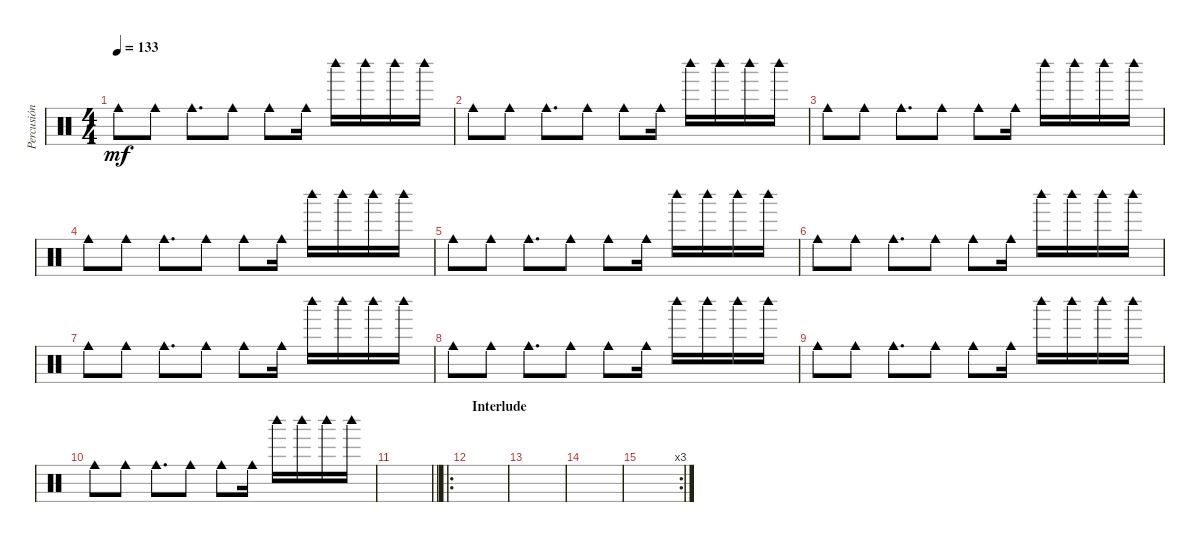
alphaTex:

\track ("Percusión Menor" "Percusión ") {instrument percussion}
\staff {score}
\articulation defaults
\ts (4 4)
\tempo 133
\clef neutral
\ks c "Cowbell medium (hit)".8{dy mf} "Cowbell medium (hit)".8 "Cowbell medium (hit)".8{d} "Cowbell medium (hit)".8 "Cowbell medium (hit)".8 "Cowbell medium (hit)".16 "Woodblock high (hit)".16 "Woodblock high (hit)".16 "Woodblock high (hit)".16 "Woodblock high (hit)".16
|
"Cowbell medium (hit)".8 "Cowbell medium (hit)".8 "Cowbell medium (hit)".8{d} "Cowbell medium (hit)".8 "Cowbell medium (hit)".8 "Cowbell medium (hit)".16 "Woodblock high (hit)".16 "Woodblock high (hit)".16 "Woodblock high (hit)".16 "Woodblock high (hit)".16 |
"Cowbell medium (hit)".8 "Cowbell medium (hit)".8 "Cowbell medium (hit)".8{d} "Cowbell medium (hit)".8 "Cowbell medium (hit)".8 "Cowbell medium (hit)".16 "Woodblock high (hit)".16 "Woodblock high (hit)".16 "Woodblock high (hit)".16 "Woodblock high (hit)".16 |
"Cowbell medium (hit)".8 "Cowbell medium (hit)".8 "Cowbell medium (hit)".8{d} "Cowbell medium (hit)".8 "Cowbell medium (hit)".8 "Cowbell medium (hit)".16 "Woodblock high (hit)".16 "Woodblock high (hit)".16 "Woodblock high (hit)".16 "Woodblock high (hit)".16 |
"Cowbell medium (hit)".8 "Cowbell medium (hit)".8 "Cowbell medium (hit)".8{d} "Cowbell medium (hit)".8 "Cowbell medium (hit)".8 "Cowbell medium (hit)".16 "Woodblock high (hit)".16 "Woodblock high (hit)".16 "Woodblock high (hit)".16 "Woodblock high (hit)".16 |
"Cowbell medium (hit)".8 "Cowbell medium (hit)".8 "Cowbell medium (hit)".8{d} "Cowbell medium (hit)".8 "Cowbell medium (hit)".8 "Cowbell medium (hit)".16 "Woodblock high (hit)".16 "Woodblock high (hit)".16 "Woodblock high (hit)".16 "Woodblock high (hit)".16 |
"Cowbell medium (hit)".8 "Cowbell medium (hit)".8 "Cowbell medium (hit)".8{d} "Cowbell medium (hit)".8 "Cowbell medium (hit)".8 "Cowbell medium (hit)".16 "Woodblock high (hit)".16 "Woodblock high (hit)".16 "Woodblock high (hit)".16 "Woodblock high (hit)".16 |
"Cowbell medium (hit)".8 "Cowbell medium (hit)".8 "Cowbell medium (hit)".8{d} "Cowbell medium (hit)".8 "Cowbell medium (hit)".8 "Cowbell medium (hit)".16 "Woodblock high (hit)".16 "Woodblock high (hit)".16 "Woodblock high (hit)".16 "Woodblock high (hit)".16 |
"Cowbell medium (hit)".8 "Cowbell medium (hit)".8 "Cowbell medium (hit)".8{d} "Cowbell medium (hit)".8 "Cowbell medium (hit)".8 "Cowbell medium (hit)".16 "Woodblock high (hit)".16 "Woodblock high (hit)".16 "Woodblock high (hit)".16 "Woodblock high (hit)".16 |
"Cowbell medium (hit)".8 "Cowbell medium (hit)".8 "Cowbell medium (hit)".8{d} "Cowbell medium (hit)".8 "Cowbell medium (hit)".8 "Cowbell medium (hit)".16 "Woodblock high (hit)".16 "Woodblock high (hit)".16 "Woodblock high (hit)".16 "Woodblock high (hit)".16 |
\barLineRight lightlight
|
\ro
\section ("" "Interlude ")
|
|
|
\rc 3
